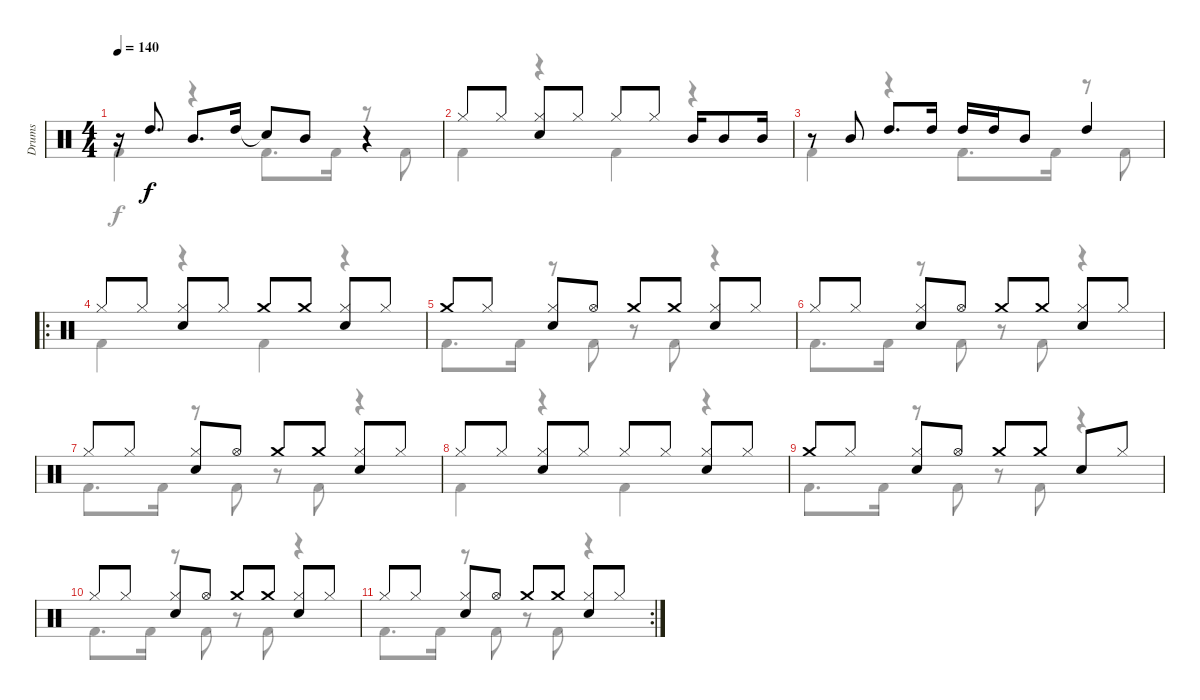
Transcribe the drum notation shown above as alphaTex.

\track ("Drums" "Drums") {instrument percussion}
\staff {score}
\articulation defaults
\voice
\ts (4 4)
\tempo 140
\clef neutral
\ks c
r.16{dy f} "High Tom (hit)".8{d} "Mid Tom (hit)".8{d} "High Tom (hit)".16 "Snare (hit)"{t}.8 "Mid Tom (hit)".8 r.4 |
"Hi-Hat (closed)".8 "Hi-Hat (closed)".8 ("Hi-Hat (closed)" "Snare (hit) 2").8 "Hi-Hat (closed)".8 "Hi-Hat (closed)".8 "Hi-Hat (closed)".8 "Mid Tom (hit)".16 "Mid Tom (hit)".8 "Mid Tom (hit)".16 |
r.8 "Mid Tom (hit)".8 "High Tom (hit)".8{d} "High Tom (hit)".16 "High Tom (hit)".16 "High Tom (hit)".16 "Mid Tom (hit)".8 "High Tom (hit)".4 |
\ro "Hi-Hat (closed)".8 "Hi-Hat (closed)".8
("Hi-Hat (closed)" "Snare (hit) 2").8 "Hi-Hat (closed)".8 "Crash medium (hit)".8 "Crash medium (hit)".8 ("Hi-Hat (closed)" "Snare (hit) 2").8 "Hi-Hat (closed)".8 |
"Crash medium (hit)".8 "Hi-Hat (closed)".8 ("Hi-Hat (closed)" "Snare (hit) 2").8 "Hi-Hat (open)".8 "Crash medium (hit)".8 "Crash medium (hit)".8 ("Hi-Hat (closed)" "Snare (hit) 2").8 "Hi-Hat (closed)".8 |
"Hi-Hat (closed)".8 "Hi-Hat (closed)".8 ("Hi-Hat (closed)" "Snare (hit) 2").8 "Hi-Hat (open)".8 "Crash medium (hit)".8 "Crash medium (hit)".8 ("Hi-Hat (closed)" "Snare (hit) 2").8 "Hi-Hat (closed)".8 |
"Hi-Hat (closed)".8 "Hi-Hat (closed)".8 ("Hi-Hat (closed)" "Snare (hit) 2").8 "Hi-Hat (open)".8 "Crash medium (hit)".8 "Crash medium (hit)".8 ("Hi-Hat (closed)" "Snare (hit) 2").8 "Hi-Hat (closed)".8 |
"Hi-Hat (closed)".8 "Hi-Hat (closed)".8 ("Hi-Hat (closed)" "Snare (hit) 2").8 "Hi-Hat (closed)".8 "Hi-Hat (closed)".8 "Hi-Hat (closed)".8 ("Hi-Hat (closed)" "Snare (hit) 2").8 "Hi-Hat (closed)".8 |
"Crash medium (hit)".8 "Hi-Hat (closed)".8 ("Hi-Hat (closed)" "Snare (hit) 2").8 "Hi-Hat (open)".8 "Crash medium (hit)".8 "Crash medium (hit)".8 "Snare (hit) 2".8 "Hi-Hat (closed)".8 |
"Hi-Hat (closed)".8 "Hi-Hat (closed)".8 ("Hi-Hat (closed)" "Snare (hit) 2").8 "Hi-Hat (open)".8 "Crash medium (hit)".8 "Crash medium (hit)".8 ("Hi-Hat (closed)" "Snare (hit) 2").8 "Hi-Hat (closed)".8 |
\rc 2 "Hi-Hat (closed)".8 "Hi-Hat (closed)".8
("Hi-Hat (closed)" "Snare (hit) 2").8 "Hi-Hat (open)".8 "Crash medium (hit)".8 "Crash medium (hit)".8 ("Hi-Hat (closed)" "Snare (hit) 2").8 "Hi-Hat (closed)".8
\voice
\clef neutral
\ottava regular
\simile none
\ks c "Kick (hit) 2".4{dy f}
r.4 "Kick (hit) 2".8{d} "Kick (hit) 2".16 r.8 "Kick (hit) 2".8 |
"Kick (hit) 2".4 r.4 "Kick (hit) 2".4 r.4 |
"Kick (hit) 2".4 r.4 "Kick (hit) 2".8{d} "Kick (hit) 2".16 r.8 "Kick (hit) 2".8 |
"Kick (hit) 2".4 r.4 "Kick (hit) 2".4 r.4 |
"Kick (hit) 2".8{d} "Kick (hit) 2".16 r.8 "Kick (hit) 2".8 r.8 "Kick (hit) 2".8 r.4 |
"Kick (hit) 2".8{d} "Kick (hit) 2".16 r.8 "Kick (hit) 2".8 r.8 "Kick (hit) 2".8 r.4 |
"Kick (hit) 2".8{d} "Kick (hit) 2".16 r.8 "Kick (hit) 2".8 r.8 "Kick (hit) 2".8 r.4 |
"Kick (hit) 2".4 r.4 "Kick (hit) 2".4 r.4 |
"Kick (hit) 2".8{d} "Kick (hit) 2".16 r.8 "Kick (hit) 2".8 r.8 "Kick (hit) 2".8 r.4 |
"Kick (hit) 2".8{d} "Kick (hit) 2".16 r.8 "Kick (hit) 2".8 r.8 "Kick (hit) 2".8 r.4 |
"Kick (hit) 2".8{d} "Kick (hit) 2".16 r.8 "Kick (hit) 2".8 r.8 "Kick (hit) 2".8 r.4
